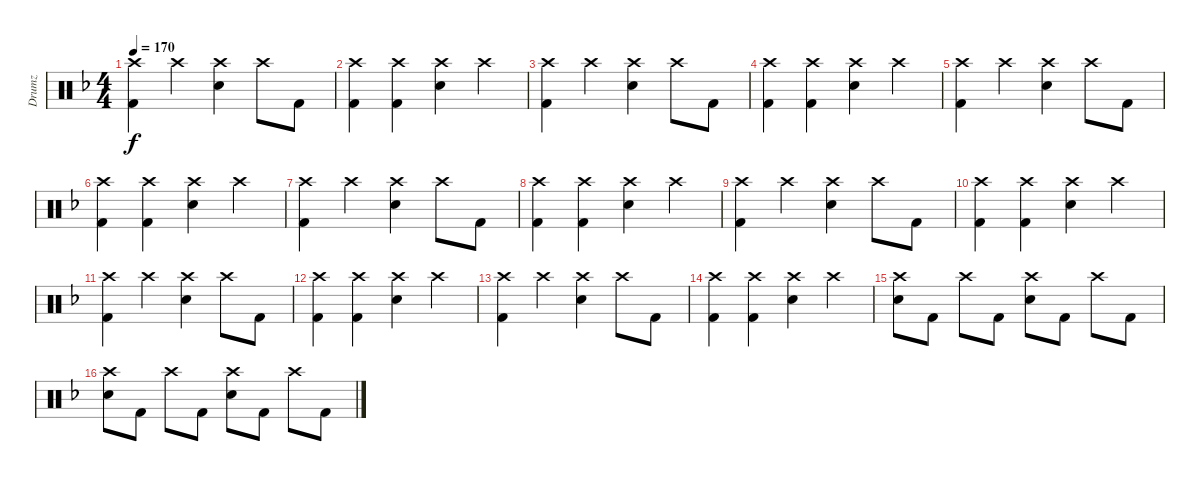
\track ("Drumz" "Drumz") {instrument percussion}
\staff {score}
\articulation defaults
\ts (4 4)
\tempo 170
\clef neutral
\ks dminor
("Crash high (hit)" "Kick (hit) 2").4{dy f} "Crash high (hit)".4 ("Crash high (hit)" "Snare (hit) 2").4 "Crash high (hit)".8 "Kick (hit) 2".8 |
("Crash high (hit)" "Kick (hit) 2").4 ("Crash high (hit)" "Kick (hit) 2").4 ("Crash high (hit)" "Snare (hit) 2").4 "Crash high (hit)".4 |
("Crash high (hit)" "Kick (hit) 2").4 "Crash high (hit)".4 ("Crash high (hit)" "Snare (hit) 2").4 "Crash high (hit)".8 "Kick (hit) 2".8 |
("Crash high (hit)" "Kick (hit) 2").4 ("Crash high (hit)" "Kick (hit) 2").4 ("Crash high (hit)" "Snare (hit) 2").4 "Crash high (hit)".4 |
("Crash high (hit)" "Kick (hit) 2").4 "Crash high (hit)".4 ("Crash high (hit)" "Snare (hit) 2").4 "Crash high (hit)".8 "Kick (hit) 2".8 |
("Crash high (hit)" "Kick (hit) 2").4 ("Crash high (hit)" "Kick (hit) 2").4 ("Crash high (hit)" "Snare (hit) 2").4 "Crash high (hit)".4 |
("Crash high (hit)" "Kick (hit) 2").4 "Crash high (hit)".4 ("Crash high (hit)" "Snare (hit) 2").4 "Crash high (hit)".8 "Kick (hit) 2".8 |
("Crash high (hit)" "Kick (hit) 2").4 ("Crash high (hit)" "Kick (hit) 2").4 ("Crash high (hit)" "Snare (hit) 2").4 "Crash high (hit)".4 |
("Crash high (hit)" "Kick (hit) 2").4 "Crash high (hit)".4 ("Crash high (hit)" "Snare (hit) 2").4 "Crash high (hit)".8 "Kick (hit) 2".8 |
("Crash high (hit)" "Kick (hit) 2").4 ("Crash high (hit)" "Kick (hit) 2").4 ("Crash high (hit)" "Snare (hit) 2").4 "Crash high (hit)".4 |
("Crash high (hit)" "Kick (hit) 2").4 "Crash high (hit)".4 ("Crash high (hit)" "Snare (hit) 2").4 "Crash high (hit)".8 "Kick (hit) 2".8 |
("Crash high (hit)" "Kick (hit) 2").4 ("Crash high (hit)" "Kick (hit) 2").4 ("Crash high (hit)" "Snare (hit) 2").4 "Crash high (hit)".4 |
("Crash high (hit)" "Kick (hit) 2").4 "Crash high (hit)".4 ("Crash high (hit)" "Snare (hit) 2").4 "Crash high (hit)".8 "Kick (hit) 2".8 |
("Crash high (hit)" "Kick (hit) 2").4 ("Crash high (hit)" "Kick (hit) 2").4 ("Crash high (hit)" "Snare (hit) 2").4 "Crash high (hit)".4 |
("Crash high (hit)" "Snare (hit) 2").8 "Kick (hit) 2".8 "Crash high (hit)".8 "Kick (hit) 2".8 ("Crash high (hit)" "Snare (hit) 2").8 "Kick (hit) 2".8 "Crash high (hit)".8 "Kick (hit) 2".8 |
("Crash high (hit)" "Snare (hit) 2").8 "Kick (hit) 2".8 "Crash high (hit)".8 "Kick (hit) 2".8 ("Crash high (hit)" "Snare (hit) 2").8 "Kick (hit) 2".8 "Crash high (hit)".8 "Kick (hit) 2".8
